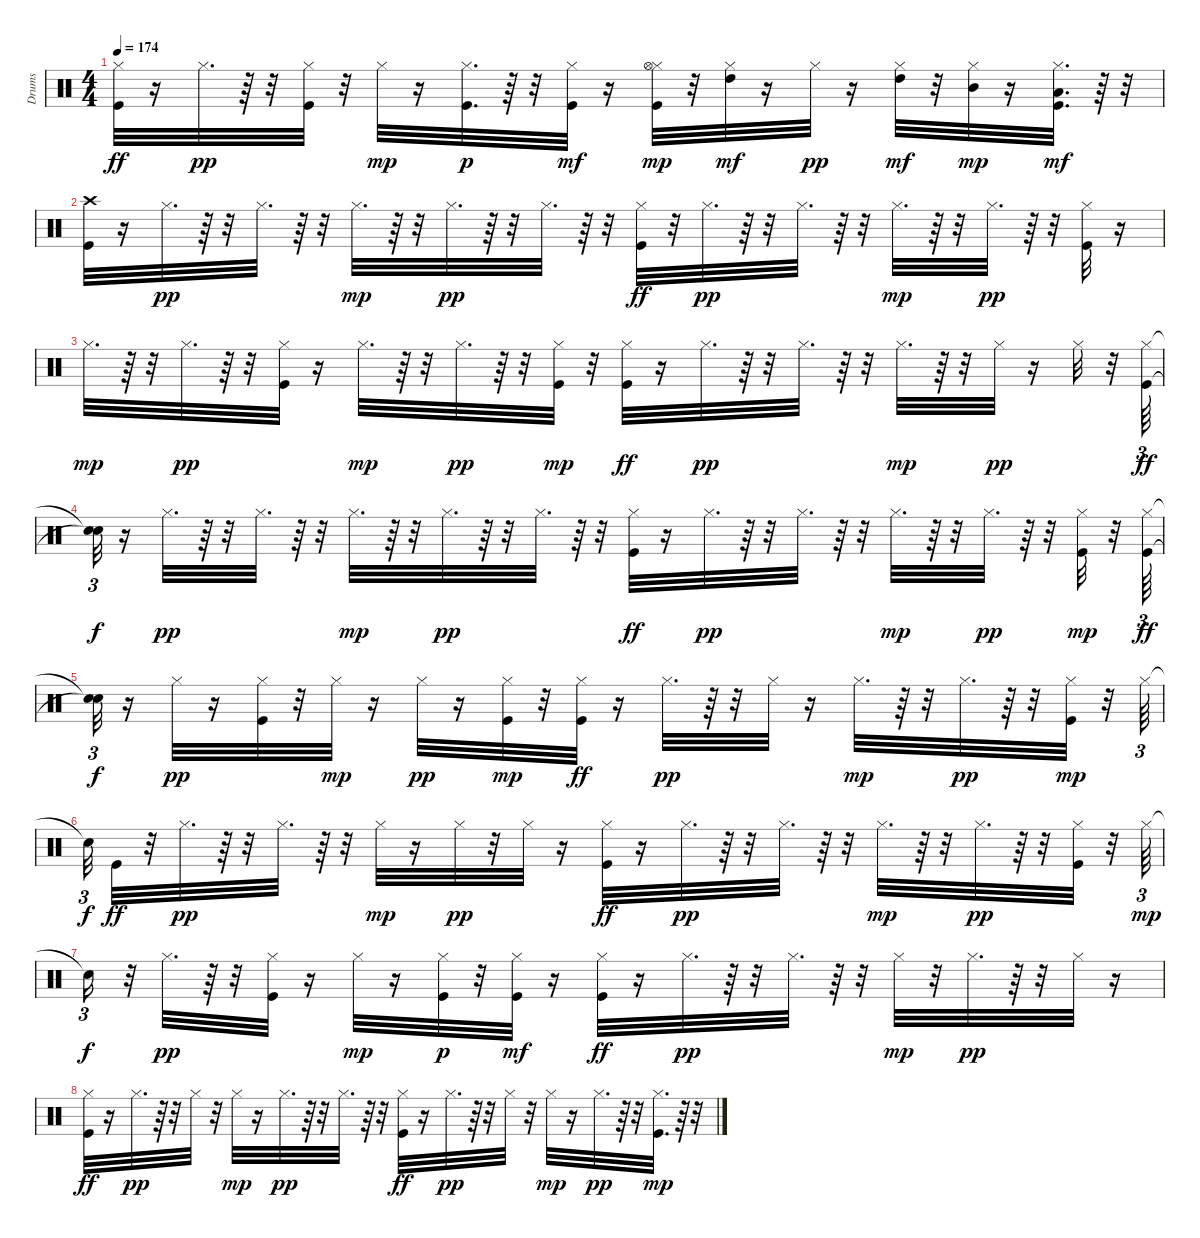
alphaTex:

\track ("Drums" "Drums") {instrument percussion}
\staff {score}
\articulation defaults
\ts (4 4)
\tempo 174
\clef neutral
\ks c
("Hi-Hat (closed)" "Kick (hit)").32{dy ff} r.16 "Hi-Hat (closed)".32{d dy pp} r.64 r.32 ("Hi-Hat (closed)" "Kick (hit)").32 r.32 "Hi-Hat (closed)".32{dy mp} r.16 ("Hi-Hat (closed)" "Kick (hit)").32{d dy p} r.64 r.32 ("Hi-Hat (closed)" "Kick (hit)").32{dy mf} r.16 ("Hi-Hat (closed)" "Kick (hit)" "Hi-Hat (open)").32{dy mp} r.32 ("Hi-Hat (closed)" "High Tom (hit)").32{dy mf} r.16 "Hi-Hat (closed)".32{dy pp} r.16 ("Hi-Hat (closed)" "High Tom (hit)").32{dy mf} r.32 ("Hi-Hat (closed)" "Mid Tom (hit)").32{dy mp} r.16 ("Low Tom (hit)" "Hi-Hat (closed)" "Kick (hit)").32{d dy mf} r.64 r.32 |
("Kick (hit)" "Crash high (hit)").32 r.16 "Hi-Hat (closed)".32{d dy pp} r.64 r.32 "Hi-Hat (closed)".32{d} r.64 r.32 "Hi-Hat (closed)".32{d dy mp} r.64 r.32 "Hi-Hat (closed)".32{d dy pp} r.64 r.32 "Hi-Hat (closed)".32{d} r.64 r.32 ("Hi-Hat (closed)" "Kick (hit)").32{dy ff} r.32 "Hi-Hat (closed)".32{d dy pp} r.64 r.32 "Hi-Hat (closed)".32{d} r.64 r.32 "Hi-Hat (closed)".32{d dy mp} r.64 r.32 "Hi-Hat (closed)".32{d dy pp} r.64 r.32 ("Hi-Hat (closed)" "Kick (hit)").32 r.16 |
"Hi-Hat (closed)".32{d dy mp} r.64 r.32 "Hi-Hat (closed)".32{d dy pp} r.64 r.32 ("Hi-Hat (closed)" "Kick (hit)").32 r.16 "Hi-Hat (closed)".32{d dy mp} r.64 r.32 "Hi-Hat (closed)".32{d dy pp} r.64 r.32 ("Hi-Hat (closed)" "Kick (hit)").32{dy mp} r.32 ("Hi-Hat (closed)" "Kick (hit)").32{dy ff} r.16 "Hi-Hat (closed)".32{d dy pp} r.64 r.32 "Hi-Hat (closed)".32{d} r.64 r.32 "Hi-Hat (closed)".32{d dy mp} r.64 r.32 "Hi-Hat (closed)".32{dy pp} r.16 "Hi-Hat (closed)".32 r.32 ("Hi-Hat (closed)" "Kick (hit)").64{tu (3 2) dy ff} |
("Snare (hit)"{t} "Snare (hit)"{t}).32{tu (3 2) dy f} r.16 "Hi-Hat (closed)".32{d dy pp} r.64 r.32 "Hi-Hat (closed)".32{d} r.64 r.32 "Hi-Hat (closed)".32{d dy mp} r.64 r.32 "Hi-Hat (closed)".32{d dy pp} r.64 r.32 "Hi-Hat (closed)".32{d} r.64 r.32 ("Hi-Hat (closed)" "Kick (hit)").32{dy ff} r.16 "Hi-Hat (closed)".32{d dy pp} r.64 r.32 "Hi-Hat (closed)".32{d} r.64 r.32 "Hi-Hat (closed)".32{d dy mp} r.64 r.32 "Hi-Hat (closed)".32{d dy pp} r.64 r.32 ("Hi-Hat (closed)" "Kick (hit)").32{dy mp} r.32 ("Hi-Hat (closed)" "Kick (hit)").64{tu (3 2) dy ff} |
("Snare (hit)"{t} "Snare (hit)"{t}).32{tu (3 2) dy f} r.16 "Hi-Hat (closed)".32{dy pp} r.16 ("Hi-Hat (closed)" "Kick (hit)").32 r.32 "Hi-Hat (closed)".32{dy mp} r.16 "Hi-Hat (closed)".32{dy pp} r.16 ("Hi-Hat (closed)" "Kick (hit)").32{dy mp} r.32 ("Hi-Hat (closed)" "Kick (hit)").32{dy ff} r.16 "Hi-Hat (closed)".32{d dy pp} r.64 r.32 "Hi-Hat (closed)".32 r.16 "Hi-Hat (closed)".32{d dy mp} r.64 r.32 "Hi-Hat (closed)".32{d dy pp} r.64 r.32 ("Hi-Hat (closed)" "Kick (hit)").32{dy mp} r.32 "Hi-Hat (closed)".64{tu (3 2)} |
"Snare (hit)"{t}.32{tu (3 2) dy f} "Kick (hit)".32{dy ff} r.32 "Hi-Hat (closed)".32{d dy pp} r.64 r.32 "Hi-Hat (closed)".32{d} r.64 r.32 "Hi-Hat (closed)".32{dy mp} r.16 "Hi-Hat (closed)".32{dy pp} r.32 "Hi-Hat (closed)".32 r.16 ("Hi-Hat (closed)" "Kick (hit)").32{dy ff} r.16 "Hi-Hat (closed)".32{d dy pp} r.64 r.32 "Hi-Hat (closed)".32{d} r.64 r.32 "Hi-Hat (closed)".32{d dy mp} r.64 r.32 "Hi-Hat (closed)".32{d dy pp} r.64 r.32 ("Hi-Hat (closed)" "Kick (hit)").32 r.32 "Hi-Hat (closed)".64{tu (3 2) dy mp} |
"Snare (hit)"{t}.16{tu (3 2) dy f} r.32 "Hi-Hat (closed)".32{d dy pp} r.64 r.32 ("Hi-Hat (closed)" "Kick (hit)").32 r.16 "Hi-Hat (closed)".32{dy mp} r.16 ("Hi-Hat (closed)" "Kick (hit)").32{dy p} r.32 ("Hi-Hat (closed)" "Kick (hit)").32{dy mf} r.16 ("Hi-Hat (closed)" "Kick (hit)").32{dy ff} r.16 "Hi-Hat (closed)".32{d dy pp} r.64 r.32 "Hi-Hat (closed)".32{d} r.64 r.32 "Hi-Hat (closed)".32{dy mp} r.32 "Hi-Hat (closed)".32{d dy pp} r.64 r.32 "Hi-Hat (closed)".32 r.16 |
("Hi-Hat (closed)" "Kick (hit)").32{dy ff} r.16 "Hi-Hat (closed)".32{d dy pp} r.64 r.32 "Hi-Hat (closed)".32 r.32 "Hi-Hat (closed)".32{dy mp} r.16 "Hi-Hat (closed)".32{d dy pp} r.64 r.32 "Hi-Hat (closed)".32{d} r.64 r.32 ("Hi-Hat (closed)" "Kick (hit)").32{dy ff} r.16 "Hi-Hat (closed)".32{d dy pp} r.64 r.32 "Hi-Hat (closed)".32 r.32 "Hi-Hat (closed)".32{dy mp} r.16 "Hi-Hat (closed)".32{d dy pp} r.64 r.32 ("Hi-Hat (closed)" "Kick (hit)").32{d dy mp} r.64 r.32
